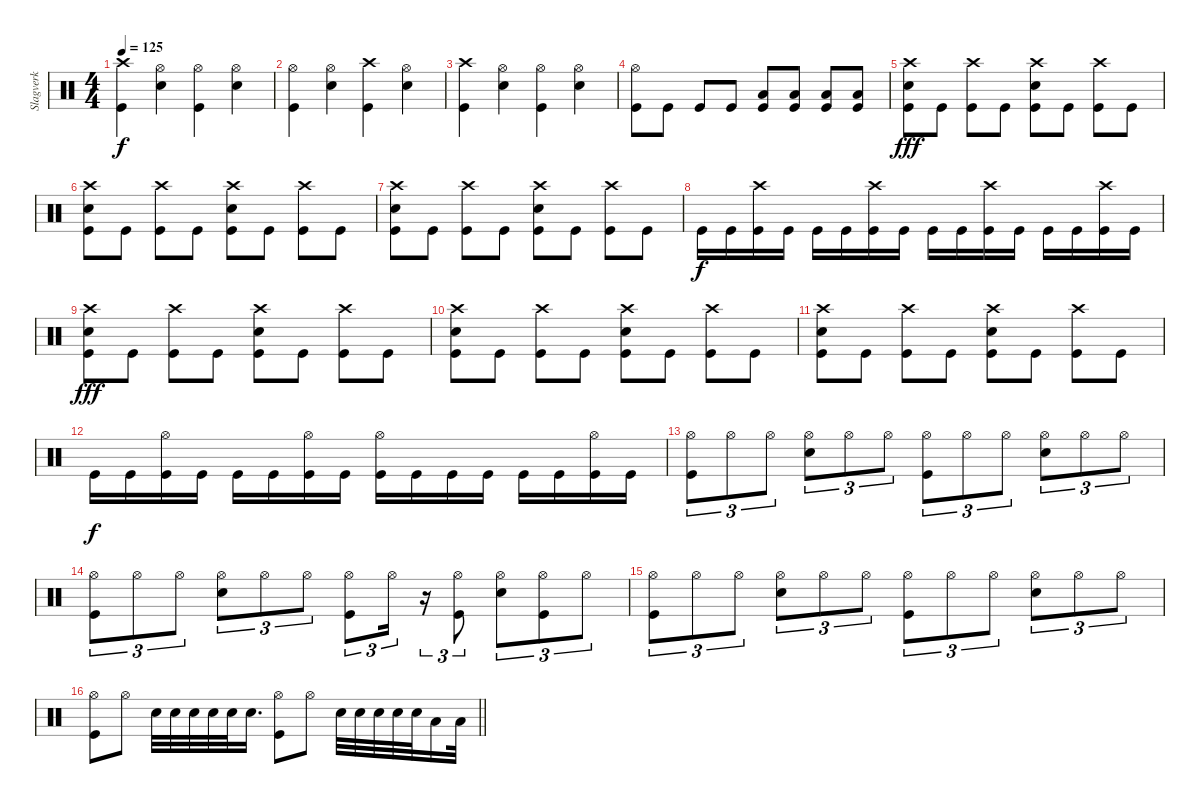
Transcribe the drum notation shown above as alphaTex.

\track ("Slagverk" "Slagverk") {instrument percussion}
\staff {score}
\articulation defaults
\ts (4 4)
\tempo 125
\clef neutral
\ks c
("Crash high (hit)" "Kick (hit)").4{dy f} ("Hi-Hat (open)" "Snare (hit) 2").4 ("Hi-Hat (open)" "Kick (hit)").4 ("Hi-Hat (open)" "Snare (hit) 2").4 |
("Hi-Hat (open)" "Kick (hit)").4 ("Hi-Hat (open)" "Snare (hit) 2").4 ("Crash high (hit)" "Kick (hit)").4 ("Hi-Hat (open)" "Snare (hit) 2").4 |
("Crash high (hit)" "Kick (hit)").4 ("Hi-Hat (open)" "Snare (hit) 2").4 ("Hi-Hat (open)" "Kick (hit)").4 ("Hi-Hat (open)" "Snare (hit) 2").4 |
("Hi-Hat (open)" "Kick (hit)").8 "Kick (hit)".8 "Kick (hit)".8 "Kick (hit)".8 ("Low Floor Tom (hit)" "Kick (hit)").8 ("Low Floor Tom (hit)" "Kick (hit)").8 ("Low Floor Tom (hit)" "Kick (hit)").8 ("Low Floor Tom (hit)" "Kick (hit)").8 |
("Crash high (hit)" "Snare (hit) 2" "Kick (hit)").8{dy fff} "Kick (hit)".8 ("Crash high (hit)" "Kick (hit)").8 "Kick (hit)".8 ("Crash high (hit)" "Snare (hit) 2" "Kick (hit)").8 "Kick (hit)".8 ("Crash high (hit)" "Kick (hit)").8 "Kick (hit)".8 |
("Crash high (hit)" "Snare (hit) 2" "Kick (hit)").8 "Kick (hit)".8 ("Crash high (hit)" "Kick (hit)").8 "Kick (hit)".8 ("Crash high (hit)" "Snare (hit) 2" "Kick (hit)").8 "Kick (hit)".8 ("Crash high (hit)" "Kick (hit)").8 "Kick (hit)".8 |
("Crash high (hit)" "Snare (hit) 2" "Kick (hit)").8 "Kick (hit)".8 ("Crash high (hit)" "Kick (hit)").8 "Kick (hit)".8 ("Crash high (hit)" "Snare (hit) 2" "Kick (hit)").8 "Kick (hit)".8 ("Crash high (hit)" "Kick (hit)").8 "Kick (hit)".8 |
"Kick (hit)".16{dy f} "Kick (hit)".16 ("Crash high (hit)" "Kick (hit)").16 "Kick (hit)".16 "Kick (hit)".16 "Kick (hit)".16 ("Crash high (hit)" "Kick (hit)").16 "Kick (hit)".16 "Kick (hit)".16 "Kick (hit)".16 ("Crash high (hit)" "Kick (hit)").16 "Kick (hit)".16 "Kick (hit)".16 "Kick (hit)".16 ("Crash high (hit)" "Kick (hit)").16 "Kick (hit)".16 |
("Crash high (hit)" "Snare (hit) 2" "Kick (hit)").8{dy fff} "Kick (hit)".8 ("Crash high (hit)" "Kick (hit)").8 "Kick (hit)".8 ("Crash high (hit)" "Snare (hit) 2" "Kick (hit)").8 "Kick (hit)".8 ("Crash high (hit)" "Kick (hit)").8 "Kick (hit)".8 |
("Crash high (hit)" "Snare (hit) 2" "Kick (hit)").8 "Kick (hit)".8 ("Crash high (hit)" "Kick (hit)").8 "Kick (hit)".8 ("Crash high (hit)" "Snare (hit) 2" "Kick (hit)").8 "Kick (hit)".8 ("Crash high (hit)" "Kick (hit)").8 "Kick (hit)".8 |
("Crash high (hit)" "Snare (hit) 2" "Kick (hit)").8 "Kick (hit)".8 ("Crash high (hit)" "Kick (hit)").8 "Kick (hit)".8 ("Crash high (hit)" "Snare (hit) 2" "Kick (hit)").8 "Kick (hit)".8 ("Crash high (hit)" "Kick (hit)").8 "Kick (hit)".8 |
"Kick (hit)".16{dy f} "Kick (hit)".16 ("Hi-Hat (open)" "Kick (hit)").16 "Kick (hit)".16 "Kick (hit)".16 "Kick (hit)".16 ("Hi-Hat (open)" "Kick (hit)").16 "Kick (hit)".16 ("Hi-Hat (open)" "Kick (hit)").16 "Kick (hit)".16 "Kick (hit)".16 "Kick (hit)".16 "Kick (hit)".16 "Kick (hit)".16 ("Hi-Hat (open)" "Kick (hit)").16 "Kick (hit)".16 |
("Hi-Hat (open)" "Kick (hit)").8{tu (3 2)} "Hi-Hat (open)".8{tu (3 2)} "Hi-Hat (open)".8{tu (3 2)} ("Hi-Hat (open)" "Snare (hit) 2").8{tu (3 2)} "Hi-Hat (open)".8{tu (3 2)} "Hi-Hat (open)".8{tu (3 2)} ("Hi-Hat (open)" "Kick (hit)").8{tu (3 2)} "Hi-Hat (open)".8{tu (3 2)} "Hi-Hat (open)".8{tu (3 2)} ("Hi-Hat (open)" "Snare (hit) 2").8{tu (3 2)} "Hi-Hat (open)".8{tu (3 2)} "Hi-Hat (open)".8{tu (3 2)} |
("Hi-Hat (open)" "Kick (hit)").8{tu (3 2)} "Hi-Hat (open)".8{tu (3 2)} "Hi-Hat (open)".8{tu (3 2)} ("Hi-Hat (open)" "Snare (hit) 2").8{tu (3 2)} "Hi-Hat (open)".8{tu (3 2)} "Hi-Hat (open)".8{tu (3 2)} ("Hi-Hat (open)" "Kick (hit)").8{tu (3 2)} "Hi-Hat (open)".16{tu (3 2)} r.16{tu (3 2)} ("Hi-Hat (open)" "Kick (hit)").8{tu (3 2)} ("Hi-Hat (open)" "Snare (hit) 2").8{tu (3 2)} ("Hi-Hat (open)" "Kick (hit)").8{tu (3 2)} "Hi-Hat (open)".8{tu (3 2)} |
("Hi-Hat (open)" "Kick (hit)").8{tu (3 2)} "Hi-Hat (open)".8{tu (3 2)} "Hi-Hat (open)".8{tu (3 2)} ("Hi-Hat (open)" "Snare (hit) 2").8{tu (3 2)} "Hi-Hat (open)".8{tu (3 2)} "Hi-Hat (open)".8{tu (3 2)} ("Hi-Hat (open)" "Kick (hit)").8{tu (3 2)} "Hi-Hat (open)".8{tu (3 2)} "Hi-Hat (open)".8{tu (3 2)} ("Hi-Hat (open)" "Snare (hit) 2").8{tu (3 2)} "Hi-Hat (open)".8{tu (3 2)} "Hi-Hat (open)".8{tu (3 2)} |
\barLineRight lightlight
("Hi-Hat (open)" "Kick (hit)").8 "Hi-Hat (open)".8 "Snare (hit) 2".32 "Snare (hit) 2".32 "Snare (hit) 2".32 "Snare (hit) 2".32 "Snare (hit) 2".32 "Snare (hit) 2".16{d} ("Hi-Hat (open)" "Kick (hit)").8 "Hi-Hat (open)".8 "Snare (hit) 2".32 "Snare (hit) 2".32 "Snare (hit) 2".32 "Snare (hit) 2".32 "Snare (hit) 2".32 "Low Floor Tom (hit)".16 "Low Floor Tom (hit)".32
